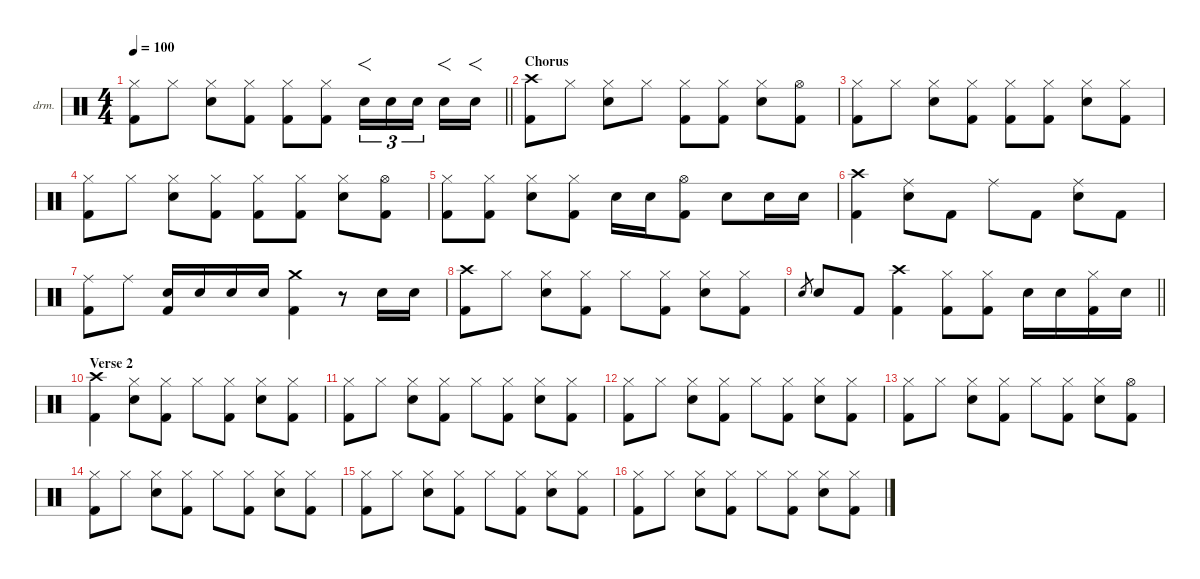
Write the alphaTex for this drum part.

\defaultSystemsLayout 4
\hideDynamics
\bracketExtendMode nobrackets
\firstSystemTrackNameOrientation horizontal
\otherSystemsTrackNameOrientation horizontal
\track ("Drums" "drm.") {instrument percussion}
\staff {score}
\articulation defaults
\ts (4 4)
\tempo 100
\clef neutral
\barLineRight lightlight
\ks c
("Kick (hit) 2" "Hi-Hat (closed)").8{dy f} "Hi-Hat (closed)".8 ("Snare (hit) 2" "Hi-Hat (closed)").8 ("Kick (hit) 2" "Hi-Hat (closed)").8 ("Kick (hit) 2" "Hi-Hat (closed)").8 ("Kick (hit) 2" "Hi-Hat (closed)").8 "Snare (hit) 2".16{f tu (3 2)} "Snare (hit) 2".16{tu (3 2)} "Snare (hit) 2".16{tu (3 2)} "Snare (hit) 2".16{f} "Snare (hit) 2".16{f} |
\section ("" "Chorus")
("Kick (hit) 2" "Crash high (hit)").8 "Hi-Hat (closed)".8 ("Snare (hit) 2" "Hi-Hat (closed)").8 "Hi-Hat (closed)".8 ("Kick (hit) 2" "Hi-Hat (closed)").8 ("Kick (hit) 2" "Hi-Hat (closed)").8 ("Snare (hit) 2" "Hi-Hat (closed)").8 ("Kick (hit) 2" "Hi-Hat (open)").8 |
("Kick (hit) 2" "Hi-Hat (closed)").8 "Hi-Hat (closed)".8 ("Snare (hit) 2" "Hi-Hat (closed)").8 ("Kick (hit) 2" "Hi-Hat (closed)").8 ("Kick (hit) 2" "Hi-Hat (closed)").8 ("Kick (hit) 2" "Hi-Hat (closed)").8 ("Snare (hit) 2" "Hi-Hat (closed)").8 ("Kick (hit) 2" "Hi-Hat (closed)").8 |
("Kick (hit) 2" "Hi-Hat (closed)").8 "Hi-Hat (closed)".8 ("Snare (hit) 2" "Hi-Hat (closed)").8 ("Kick (hit) 2" "Hi-Hat (closed)").8 ("Kick (hit) 2" "Hi-Hat (closed)").8 ("Kick (hit) 2" "Hi-Hat (closed)").8 ("Snare (hit) 2" "Hi-Hat (closed)").8 ("Kick (hit) 2" "Hi-Hat (open)").8 |
("Kick (hit) 2" "Hi-Hat (closed)").8 ("Kick (hit) 2" "Hi-Hat (closed)").8 ("Snare (hit) 2" "Hi-Hat (closed)").8 ("Kick (hit) 2" "Hi-Hat (closed)").8 "Snare (hit) 2".16 "Snare (hit) 2".16 ("Kick (hit) 2" "Hi-Hat (open)").8 "Snare (hit) 2".8 "Snare (hit) 2".16 "Snare (hit) 2".16 |
("Kick (hit) 2" "Crash high (hit)").4 ("Snare (hit) 2" "Ride (middle)").8 "Kick (hit) 2".8 "Ride (middle)".8 "Kick (hit) 2".8 ("Snare (hit) 2" "Ride (middle)").8 "Kick (hit) 2".8 |
("Kick (hit) 2" "Ride (middle)").8 "Ride (middle)".8 ("Kick (hit) 2" "Snare (hit) 2").16 "Snare (hit) 2".16 "Snare (hit) 2".16 "Snare (hit) 2".16 ("Kick (hit) 2" "Crash medium (hit)").4 r.8 "Snare (hit) 2".16 "Snare (hit) 2".16 |
("Kick (hit) 2" "Crash high (hit)").8 "Hi-Hat (closed)".8 ("Snare (hit) 2" "Hi-Hat (closed)").8 ("Kick (hit) 2" "Hi-Hat (closed)").8 "Hi-Hat (closed)".8 ("Kick (hit) 2" "Hi-Hat (closed)").8 ("Snare (hit) 2" "Hi-Hat (closed)").8 ("Kick (hit) 2" "Hi-Hat (closed)").8 |
\barLineRight lightlight "Snare (hit) 2".8{gr dy mf} "Snare (hit) 2".8{dy f} "Kick (hit) 2".8
("Kick (hit) 2" "Crash high (hit)").4 ("Kick (hit) 2" "Hi-Hat (closed)").8 ("Kick (hit) 2" "Hi-Hat (closed)").8 "Snare (hit) 2".16 "Snare (hit) 2".16 ("Kick (hit) 2" "Hi-Hat (closed)").16 "Snare (hit) 2".16 |
\section ("" "Verse 2")
("Kick (hit) 2" "Crash high (hit)").4 ("Snare (hit) 2" "Hi-Hat (closed)").8 ("Kick (hit) 2" "Hi-Hat (closed)").8 "Hi-Hat (closed)".8 ("Kick (hit) 2" "Hi-Hat (closed)").8 ("Snare (hit) 2" "Hi-Hat (closed)").8 ("Kick (hit) 2" "Hi-Hat (closed)").8 |
("Kick (hit) 2" "Hi-Hat (closed)").8 "Hi-Hat (closed)".8 ("Snare (hit) 2" "Hi-Hat (closed)").8 ("Kick (hit) 2" "Hi-Hat (closed)").8 "Hi-Hat (closed)".8 ("Kick (hit) 2" "Hi-Hat (closed)").8 ("Snare (hit) 2" "Hi-Hat (closed)").8 ("Kick (hit) 2" "Hi-Hat (closed)").8 |
("Kick (hit) 2" "Hi-Hat (closed)").8 "Hi-Hat (closed)".8 ("Snare (hit) 2" "Hi-Hat (closed)").8 ("Kick (hit) 2" "Hi-Hat (closed)").8 "Hi-Hat (closed)".8 ("Kick (hit) 2" "Hi-Hat (closed)").8 ("Snare (hit) 2" "Hi-Hat (closed)").8 ("Kick (hit) 2" "Hi-Hat (closed)").8 |
("Kick (hit) 2" "Hi-Hat (closed)").8 "Hi-Hat (closed)".8 ("Snare (hit) 2" "Hi-Hat (closed)").8 ("Kick (hit) 2" "Hi-Hat (closed)").8 "Hi-Hat (closed)".8 ("Kick (hit) 2" "Hi-Hat (closed)").8 ("Snare (hit) 2" "Hi-Hat (closed)").8 ("Kick (hit) 2" "Hi-Hat (open)").8 |
("Kick (hit) 2" "Hi-Hat (closed)").8 "Hi-Hat (closed)".8 ("Snare (hit) 2" "Hi-Hat (closed)").8 ("Kick (hit) 2" "Hi-Hat (closed)").8 "Hi-Hat (closed)".8 ("Kick (hit) 2" "Hi-Hat (closed)").8 ("Snare (hit) 2" "Hi-Hat (closed)").8 ("Kick (hit) 2" "Hi-Hat (closed)").8 |
("Kick (hit) 2" "Hi-Hat (closed)").8 "Hi-Hat (closed)".8 ("Snare (hit) 2" "Hi-Hat (closed)").8 ("Kick (hit) 2" "Hi-Hat (closed)").8 "Hi-Hat (closed)".8 ("Kick (hit) 2" "Hi-Hat (closed)").8 ("Snare (hit) 2" "Hi-Hat (closed)").8 ("Kick (hit) 2" "Hi-Hat (closed)").8 |
("Kick (hit) 2" "Hi-Hat (closed)").8 "Hi-Hat (closed)".8 ("Snare (hit) 2" "Hi-Hat (closed)").8 ("Kick (hit) 2" "Hi-Hat (closed)").8 "Hi-Hat (closed)".8 ("Kick (hit) 2" "Hi-Hat (closed)").8 ("Snare (hit) 2" "Hi-Hat (closed)").8 ("Kick (hit) 2" "Hi-Hat (closed)").8
